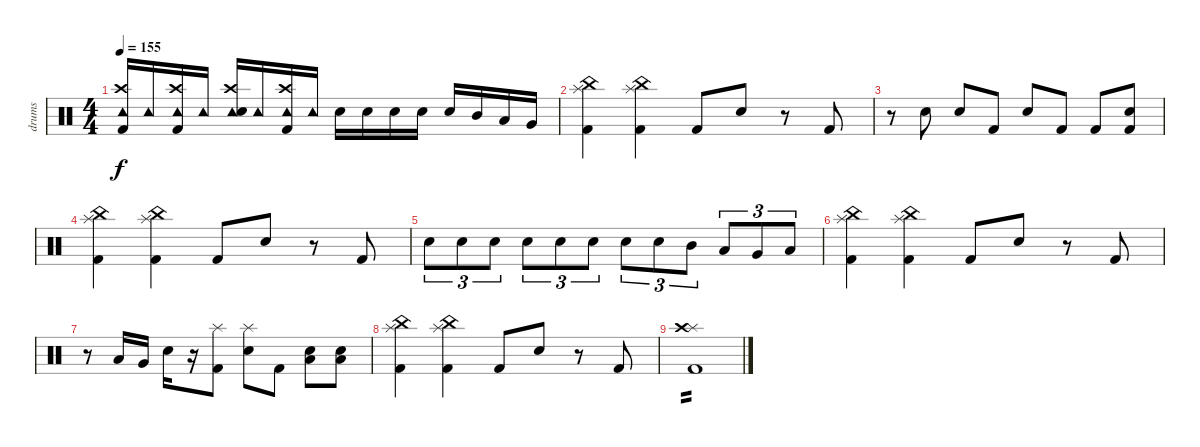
\track ("drums" "drums") {instrument percussion}
\staff {score}
\articulation defaults
\ts (4 4)
\tempo 155
\clef neutral
\ks c
("Tambourine (hit)" "Crash high (hit)" "Kick (hit) 2").16{dy f} "Tambourine (hit)".16 ("Tambourine (hit)" "Crash high (hit)" "Kick (hit) 2").16 "Tambourine (hit)".16 ("Tambourine (hit)" "Crash high (hit)" "Snare (hit) 2").16 "Tambourine (hit)".16 ("Tambourine (hit)" "Crash high (hit)" "Kick (hit) 2").16 "Tambourine (hit)".16 "Snare (hit) 2".16 "Snare (hit) 2".16 "Snare (hit) 2".16 "Snare (hit) 2".16 "Snare (hit) 2".16 "Mid Tom (hit)".16 "Low Tom (hit)".16 "Very Low Tom (hit)".16 |
("Splash (hit)" "China (hit)" "Kick (hit) 2").4 ("Splash (hit)" "China (hit)" "Kick (hit) 2").4 "Kick (hit) 2".8 "Snare (hit) 2".8 r.8 "Kick (hit) 2".8 |
r.8 "Snare (hit) 2".8 "Snare (hit) 2".8 "Kick (hit) 2".8 "Snare (hit) 2".8 "Kick (hit) 2".8 "Kick (hit) 2".8 ("Snare (hit) 2" "Kick (hit) 2").8 |
("Splash (hit)" "China (hit)" "Kick (hit) 2").4 ("Splash (hit)" "China (hit)" "Kick (hit) 2").4 "Kick (hit) 2".8 "Snare (hit) 2".8 r.8 "Kick (hit) 2".8 |
"Snare (hit) 2".8{tu (3 2)} "Snare (hit) 2".8{tu (3 2)} "Snare (hit) 2".8{tu (3 2)} "Snare (hit) 2".8{tu (3 2)} "Snare (hit) 2".8{tu (3 2)} "Snare (hit) 2".8{tu (3 2)} "Snare (hit) 2".8{tu (3 2)} "Snare (hit) 2".8{tu (3 2)} "Mid Tom (hit)".8{tu (3 2)} "Low Tom (hit)".8{tu (3 2)} "Very Low Tom (hit)".8{tu (3 2)} "Low Floor Tom (hit)".8{tu (3 2)} |
("Splash (hit)" "China (hit)" "Kick (hit) 2").4 ("Splash (hit)" "China (hit)" "Kick (hit) 2").4 "Kick (hit) 2".8 "Snare (hit) 2".8 r.8 "Kick (hit) 2".8 |
r.8 "Low Tom (hit)".16 "Very Low Tom (hit)".16 "Snare (hit) 2".16 r.16 ("Splash (hit)" "Kick (hit) 2").8 ("Splash (hit)" "Snare (hit) 2").8 "Kick (hit) 2".8 ("Snare (hit) 2" "Low Floor Tom (hit)").8 ("Snare (hit) 2" "Low Floor Tom (hit)").8 |
("Splash (hit)" "China (hit)" "Kick (hit) 2").4 ("Splash (hit)" "China (hit)" "Kick (hit) 2").4 "Kick (hit) 2".8 "Snare (hit) 2".8 r.8 "Kick (hit) 2".8 |
("Splash (hit)" "Crash high (hit)" "Kick (hit) 2").1{tp 2}
